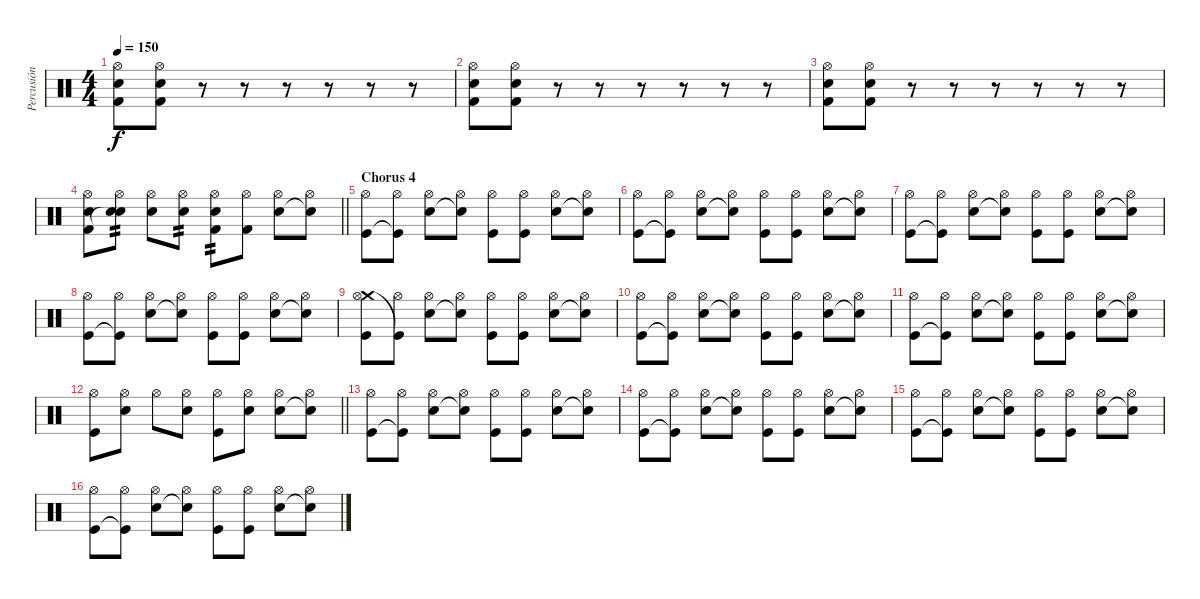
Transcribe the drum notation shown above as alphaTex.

\track ("Percusión" "Percusión") {instrument percussion}
\staff {score}
\articulation defaults
\ts (4 4)
\tempo 150
\clef neutral
\ks c
("Hi-Hat (open)" "Electric Snare (hit)" "Kick (hit) 2").8{dy f} ("Hi-Hat (open)" "Electric Snare (hit)" "Kick (hit) 2").8 r.8 r.8 r.8 r.8 r.8 r.8 |
("Hi-Hat (open)" "Electric Snare (hit)" "Kick (hit) 2").8 ("Hi-Hat (open)" "Electric Snare (hit)" "Kick (hit) 2").8 r.8 r.8 r.8 r.8 r.8 r.8 |
("Hi-Hat (open)" "Electric Snare (hit)" "Kick (hit) 2").8 ("Hi-Hat (open)" "Electric Snare (hit)" "Kick (hit) 2").8 r.8 r.8 r.8 r.8 r.8 r.8 |
\barLineRight lightlight
("Hi-Hat (open)" "Electric Snare (hit)" "Kick (hit) 2").8 ("Hi-Hat (open)" "Electric Snare (hit)" "Snare (hit)"{t}).8{tp 2} ("Hi-Hat (open)" "Electric Snare (hit)").8 ("Hi-Hat (open)" "Electric Snare (hit)").8{tp 2} ("Hi-Hat (open)" "Electric Snare (hit)" "Kick (hit) 2").8{tp 2} ("Hi-Hat (open)" "Kick (hit) 2").8 ("Hi-Hat (open)" "Electric Snare (hit)").8 ("Hi-Hat (open)" "Snare (hit)"{t}).8 |
\section ("" "Chorus 4")
("Hi-Hat (open)" "Kick (hit)").8 ("Hi-Hat (open)" "Kick (hit)"{t}).8 ("Hi-Hat (open)" "Electric Snare (hit)").8 ("Hi-Hat (open)" "Snare (hit)"{t}).8 ("Hi-Hat (open)" "Kick (hit)").8 ("Hi-Hat (open)" "Kick (hit)").8 ("Hi-Hat (open)" "Electric Snare (hit)").8 ("Hi-Hat (open)" "Snare (hit)"{t}).8 |
("Hi-Hat (open)" "Kick (hit)").8 ("Hi-Hat (open)" "Kick (hit)"{t}).8 ("Hi-Hat (open)" "Electric Snare (hit)").8 ("Hi-Hat (open)" "Snare (hit)"{t}).8 ("Hi-Hat (open)" "Kick (hit)").8 ("Hi-Hat (open)" "Kick (hit)").8 ("Hi-Hat (open)" "Electric Snare (hit)").8 ("Hi-Hat (open)" "Snare (hit)"{t}).8 |
("Hi-Hat (open)" "Kick (hit)").8 ("Hi-Hat (open)" "Kick (hit)"{t}).8 ("Hi-Hat (open)" "Electric Snare (hit)").8 ("Hi-Hat (open)" "Snare (hit)"{t}).8 ("Hi-Hat (open)" "Kick (hit)").8 ("Hi-Hat (open)" "Kick (hit)").8 ("Hi-Hat (open)" "Electric Snare (hit)").8 ("Hi-Hat (open)" "Snare (hit)"{t}).8 |
("Hi-Hat (open)" "Kick (hit)").8 ("Hi-Hat (open)" "Kick (hit)"{t}).8 ("Hi-Hat (open)" "Electric Snare (hit)").8 ("Hi-Hat (open)" "Snare (hit)"{t}).8 ("Hi-Hat (open)" "Kick (hit)").8 ("Hi-Hat (open)" "Kick (hit)").8 ("Hi-Hat (open)" "Electric Snare (hit)").8 ("Hi-Hat (open)" "Snare (hit)"{t}).8 |
("Crash medium (hit)" "Hi-Hat (open)" "Kick (hit)").8 ("Hi-Hat (open)" "Kick (hit)"{t}).8 ("Hi-Hat (open)" "Electric Snare (hit)").8 ("Hi-Hat (open)" "Snare (hit)"{t}).8 ("Hi-Hat (open)" "Kick (hit)").8 ("Hi-Hat (open)" "Kick (hit)").8 ("Hi-Hat (open)" "Electric Snare (hit)").8 ("Hi-Hat (open)" "Snare (hit)"{t}).8 |
("Hi-Hat (open)" "Kick (hit)").8 ("Hi-Hat (open)" "Kick (hit)"{t}).8 ("Hi-Hat (open)" "Electric Snare (hit)").8 ("Hi-Hat (open)" "Snare (hit)"{t}).8 ("Hi-Hat (open)" "Kick (hit)").8 ("Hi-Hat (open)" "Kick (hit)").8 ("Hi-Hat (open)" "Electric Snare (hit)").8 ("Hi-Hat (open)" "Snare (hit)"{t}).8 |
("Hi-Hat (open)" "Kick (hit)").8 ("Hi-Hat (open)" "Kick (hit)"{t}).8 ("Hi-Hat (open)" "Electric Snare (hit)").8 ("Hi-Hat (open)" "Snare (hit)"{t}).8 ("Hi-Hat (open)" "Kick (hit)").8 ("Hi-Hat (open)" "Kick (hit)").8 ("Hi-Hat (open)" "Electric Snare (hit)").8 ("Hi-Hat (open)" "Snare (hit)"{t}).8 |
\barLineRight lightlight
("Hi-Hat (open)" "Kick (hit)").8 ("Hi-Hat (open)" "Electric Snare (hit)").8 "Hi-Hat (open)".8 ("Hi-Hat (open)" "Electric Snare (hit)").8 ("Hi-Hat (open)" "Kick (hit)").8 ("Hi-Hat (open)" "Electric Snare (hit)").8 ("Hi-Hat (open)" "Electric Snare (hit)").8 ("Hi-Hat (open)" "Snare (hit)"{t}).8 |
("Hi-Hat (open)" "Kick (hit)").8 ("Hi-Hat (open)" "Kick (hit)"{t}).8 ("Hi-Hat (open)" "Electric Snare (hit)").8 ("Hi-Hat (open)" "Snare (hit)"{t}).8 ("Hi-Hat (open)" "Kick (hit)").8 ("Hi-Hat (open)" "Kick (hit)").8 ("Hi-Hat (open)" "Electric Snare (hit)").8 ("Hi-Hat (open)" "Snare (hit)"{t}).8 |
("Hi-Hat (open)" "Kick (hit)").8 ("Hi-Hat (open)" "Kick (hit)"{t}).8 ("Hi-Hat (open)" "Electric Snare (hit)").8 ("Hi-Hat (open)" "Snare (hit)"{t}).8 ("Hi-Hat (open)" "Kick (hit)").8 ("Hi-Hat (open)" "Kick (hit)").8 ("Hi-Hat (open)" "Electric Snare (hit)").8 ("Hi-Hat (open)" "Snare (hit)"{t}).8 |
("Hi-Hat (open)" "Kick (hit)").8 ("Hi-Hat (open)" "Kick (hit)"{t}).8 ("Hi-Hat (open)" "Electric Snare (hit)").8 ("Hi-Hat (open)" "Snare (hit)"{t}).8 ("Hi-Hat (open)" "Kick (hit)").8 ("Hi-Hat (open)" "Kick (hit)").8 ("Hi-Hat (open)" "Electric Snare (hit)").8 ("Hi-Hat (open)" "Snare (hit)"{t}).8 |
("Hi-Hat (open)" "Kick (hit)").8 ("Hi-Hat (open)" "Kick (hit)"{t}).8 ("Hi-Hat (open)" "Electric Snare (hit)").8 ("Hi-Hat (open)" "Snare (hit)"{t}).8 ("Hi-Hat (open)" "Kick (hit)").8 ("Hi-Hat (open)" "Kick (hit)").8 ("Hi-Hat (open)" "Electric Snare (hit)").8 ("Hi-Hat (open)" "Snare (hit)"{t}).8
